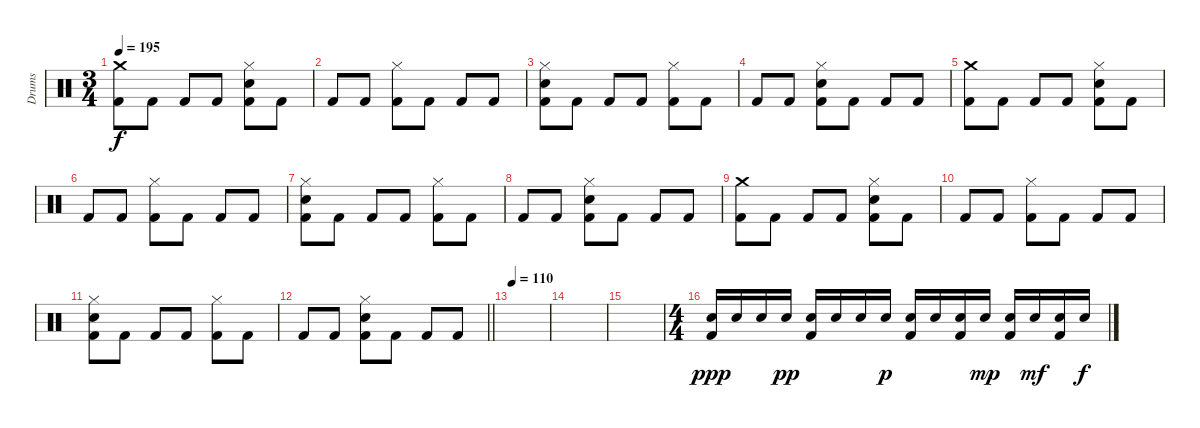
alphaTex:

\track ("Drums" "Drums") {instrument percussion}
\staff {score}
\articulation defaults
\ts (3 4)
\tempo 195
\clef neutral
\ks c
("Kick (hit) 2" "Crash medium (hit)").8{dy f} "Kick (hit) 2".8 "Kick (hit) 2".8 "Kick (hit) 2".8 ("Kick (hit) 2" "Snare (hit) 2" "Hi-Hat (closed)").8 "Kick (hit) 2".8 |
"Kick (hit) 2".8 "Kick (hit) 2".8 ("Kick (hit) 2" "Hi-Hat (closed)").8 "Kick (hit) 2".8 "Kick (hit) 2".8 "Kick (hit) 2".8 |
("Kick (hit) 2" "Snare (hit) 2" "Hi-Hat (closed)").8 "Kick (hit) 2".8 "Kick (hit) 2".8 "Kick (hit) 2".8 ("Kick (hit) 2" "Hi-Hat (closed)").8 "Kick (hit) 2".8 |
"Kick (hit) 2".8 "Kick (hit) 2".8 ("Kick (hit) 2" "Snare (hit) 2" "Hi-Hat (closed)").8 "Kick (hit) 2".8 "Kick (hit) 2".8 "Kick (hit) 2".8 |
("Kick (hit) 2" "Crash medium (hit)").8 "Kick (hit) 2".8 "Kick (hit) 2".8 "Kick (hit) 2".8 ("Kick (hit) 2" "Snare (hit) 2" "Hi-Hat (closed)").8 "Kick (hit) 2".8 |
"Kick (hit) 2".8 "Kick (hit) 2".8 ("Kick (hit) 2" "Hi-Hat (closed)").8 "Kick (hit) 2".8 "Kick (hit) 2".8 "Kick (hit) 2".8 |
("Kick (hit) 2" "Snare (hit) 2" "Hi-Hat (closed)").8 "Kick (hit) 2".8 "Kick (hit) 2".8 "Kick (hit) 2".8 ("Kick (hit) 2" "Hi-Hat (closed)").8 "Kick (hit) 2".8 |
"Kick (hit) 2".8 "Kick (hit) 2".8 ("Kick (hit) 2" "Snare (hit) 2" "Hi-Hat (closed)").8 "Kick (hit) 2".8 "Kick (hit) 2".8 "Kick (hit) 2".8 |
("Kick (hit) 2" "Crash medium (hit)").8 "Kick (hit) 2".8 "Kick (hit) 2".8 "Kick (hit) 2".8 ("Kick (hit) 2" "Snare (hit) 2" "Hi-Hat (closed)").8 "Kick (hit) 2".8 |
"Kick (hit) 2".8 "Kick (hit) 2".8 ("Kick (hit) 2" "Hi-Hat (closed)").8 "Kick (hit) 2".8 "Kick (hit) 2".8 "Kick (hit) 2".8 |
("Kick (hit) 2" "Snare (hit) 2" "Hi-Hat (closed)").8 "Kick (hit) 2".8 "Kick (hit) 2".8 "Kick (hit) 2".8 ("Kick (hit) 2" "Hi-Hat (closed)").8 "Kick (hit) 2".8 |
\barLineRight lightlight "Kick (hit) 2".8 "Kick (hit) 2".8
("Kick (hit) 2" "Snare (hit) 2" "Hi-Hat (closed)").8 "Kick (hit) 2".8 "Kick (hit) 2".8 "Kick (hit) 2".8 |
\tempo 110
|
|
|
\ts (4 4)
("Kick (hit) 2" "Snare (hit) 2").16{dy ppp} "Snare (hit) 2".16 "Snare (hit) 2".16 "Snare (hit) 2".16{dy pp} ("Kick (hit) 2" "Snare (hit) 2").16 "Snare (hit) 2".16 "Snare (hit) 2".16 "Snare (hit) 2".16{dy p} ("Kick (hit) 2" "Snare (hit) 2").16 "Snare (hit) 2".16 ("Kick (hit) 2" "Snare (hit) 2").16 "Snare (hit) 2".16{dy mp} ("Kick (hit) 2" "Snare (hit) 2").16 "Snare (hit) 2".16{dy mf} ("Kick (hit) 2" "Snare (hit) 2").16 "Snare (hit) 2".16{dy f}
